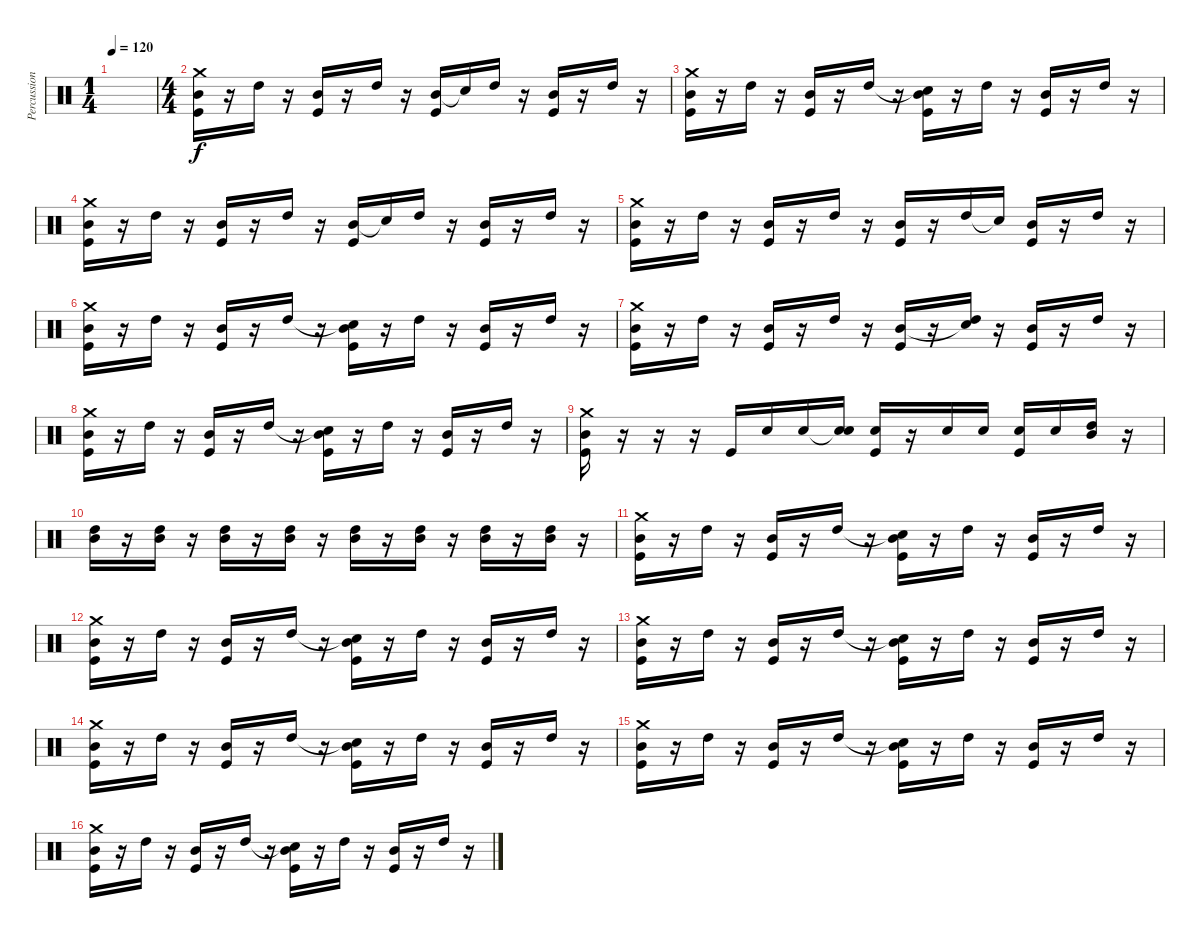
\track ("Percussion" "Percussion") {instrument percussion}
\staff {score}
\articulation defaults
\ts (1 4)
\tempo 120
\clef neutral
\ks c
|
\ts (4 4)
("Crash medium (hit)" "Mid Tom (hit)" "Kick (hit)").16 r.16 "High Tom (hit)".16 r.16 ("Mid Tom (hit)" "Kick (hit)").16 r.16 "High Tom (hit)".16 r.16 ("Mid Tom (hit)" "Kick (hit)").16 "Snare (hit)"{t}.16 "High Tom (hit)".16 r.16 ("Mid Tom (hit)" "Kick (hit)").16 r.16 "High Tom (hit)".16 r.16 |
("Crash medium (hit)" "Mid Tom (hit)" "Kick (hit)").16 r.16 "High Tom (hit)".16 r.16 ("Mid Tom (hit)" "Kick (hit)").16 r.16 "High Tom (hit)".16 r.16 ("Snare (hit)"{t} "Mid Tom (hit)" "Kick (hit)").16 r.16 "High Tom (hit)".16 r.16 ("Mid Tom (hit)" "Kick (hit)").16 r.16 "High Tom (hit)".16 r.16 |
("Crash medium (hit)" "Mid Tom (hit)" "Kick (hit)").16 r.16 "High Tom (hit)".16 r.16 ("Mid Tom (hit)" "Kick (hit)").16 r.16 "High Tom (hit)".16 r.16 ("Mid Tom (hit)" "Kick (hit)").16 "Snare (hit)"{t}.16 "High Tom (hit)".16 r.16 ("Mid Tom (hit)" "Kick (hit)").16 r.16 "High Tom (hit)".16 r.16 |
("Crash medium (hit)" "Mid Tom (hit)" "Kick (hit)").16 r.16 "High Tom (hit)".16 r.16 ("Mid Tom (hit)" "Kick (hit)").16 r.16 "High Tom (hit)".16 r.16 ("Mid Tom (hit)" "Kick (hit)").16 r.16 "High Tom (hit)".16 "Snare (hit)"{t}.16 ("Mid Tom (hit)" "Kick (hit)").16 r.16 "High Tom (hit)".16 r.16 |
("Crash medium (hit)" "Mid Tom (hit)" "Kick (hit)").16 r.16 "High Tom (hit)".16 r.16 ("Mid Tom (hit)" "Kick (hit)").16 r.16 "High Tom (hit)".16 r.16 ("Snare (hit)"{t} "Mid Tom (hit)" "Kick (hit)").16 r.16 "High Tom (hit)".16 r.16 ("Mid Tom (hit)" "Kick (hit)").16 r.16 "High Tom (hit)".16 r.16 |
("Crash medium (hit)" "Mid Tom (hit)" "Kick (hit)").16 r.16 "High Tom (hit)".16 r.16 ("Mid Tom (hit)" "Kick (hit)").16 r.16 "High Tom (hit)".16 r.16 ("Mid Tom (hit)" "Kick (hit)").16 r.16 ("Snare (hit)"{t} "High Tom (hit)").16 r.16 ("Mid Tom (hit)" "Kick (hit)").16 r.16 "High Tom (hit)".16 r.16 |
("Crash medium (hit)" "Mid Tom (hit)" "Kick (hit)").16 r.16 "High Tom (hit)".16 r.16 ("Mid Tom (hit)" "Kick (hit)").16 r.16 "High Tom (hit)".16 r.16 ("Snare (hit)"{t} "Mid Tom (hit)" "Kick (hit)").16 r.16 "High Tom (hit)".16 r.16 ("Mid Tom (hit)" "Kick (hit)").16 r.16 "High Tom (hit)".16 r.16 |
("Crash medium (hit)" "Mid Tom (hit)" "Kick (hit)").16 r.16 r.16 r.16 "Kick (hit)".16 "Electric Snare (hit)".16 "Electric Snare (hit)".16 ("Snare (hit)"{t} "Electric Snare (hit)").16 ("Electric Snare (hit)" "Kick (hit)").16 r.16 "Electric Snare (hit)".16 "Electric Snare (hit)".16 ("Electric Snare (hit)" "Kick (hit)").16 "Electric Snare (hit)".16 ("Mid Tom (hit)" "High Tom (hit)").16 r.16 |
("Mid Tom (hit)" "High Tom (hit)").16 r.16 ("High Tom (hit)" "Mid Tom (hit)").16 r.16 ("Mid Tom (hit)" "High Tom (hit)").16 r.16 ("Mid Tom (hit)" "High Tom (hit)").16 r.16 ("High Tom (hit)" "Mid Tom (hit)").16 r.16 ("Mid Tom (hit)" "High Tom (hit)").16 r.16 ("High Tom (hit)" "Mid Tom (hit)").16 r.16 ("Mid Tom (hit)" "High Tom (hit)").16 r.16 |
("Crash medium (hit)" "Mid Tom (hit)" "Kick (hit)").16 r.16 "High Tom (hit)".16 r.16 ("Mid Tom (hit)" "Kick (hit)").16 r.16 "High Tom (hit)".16 r.16 ("Snare (hit)"{t} "Mid Tom (hit)" "Kick (hit)").16 r.16 "High Tom (hit)".16 r.16 ("Mid Tom (hit)" "Kick (hit)").16 r.16 "High Tom (hit)".16 r.16 |
("Crash medium (hit)" "Mid Tom (hit)" "Kick (hit)").16 r.16 "High Tom (hit)".16 r.16 ("Mid Tom (hit)" "Kick (hit)").16 r.16 "High Tom (hit)".16 r.16 ("Snare (hit)"{t} "Mid Tom (hit)" "Kick (hit)").16 r.16 "High Tom (hit)".16 r.16 ("Mid Tom (hit)" "Kick (hit)").16 r.16 "High Tom (hit)".16 r.16 |
("Crash medium (hit)" "Mid Tom (hit)" "Kick (hit)").16 r.16 "High Tom (hit)".16 r.16 ("Mid Tom (hit)" "Kick (hit)").16 r.16 "High Tom (hit)".16 r.16 ("Snare (hit)"{t} "Mid Tom (hit)" "Kick (hit)").16 r.16 "High Tom (hit)".16 r.16 ("Mid Tom (hit)" "Kick (hit)").16 r.16 "High Tom (hit)".16 r.16 |
("Crash medium (hit)" "Mid Tom (hit)" "Kick (hit)").16 r.16 "High Tom (hit)".16 r.16 ("Mid Tom (hit)" "Kick (hit)").16 r.16 "High Tom (hit)".16 r.16 ("Snare (hit)"{t} "Mid Tom (hit)" "Kick (hit)").16 r.16 "High Tom (hit)".16 r.16 ("Mid Tom (hit)" "Kick (hit)").16 r.16 "High Tom (hit)".16 r.16 |
("Crash medium (hit)" "Mid Tom (hit)" "Kick (hit)").16 r.16 "High Tom (hit)".16 r.16 ("Mid Tom (hit)" "Kick (hit)").16 r.16 "High Tom (hit)".16 r.16 ("Snare (hit)"{t} "Mid Tom (hit)" "Kick (hit)").16 r.16 "High Tom (hit)".16 r.16 ("Mid Tom (hit)" "Kick (hit)").16 r.16 "High Tom (hit)".16 r.16 |
("Crash medium (hit)" "Mid Tom (hit)" "Kick (hit)").16 r.16 "High Tom (hit)".16 r.16 ("Mid Tom (hit)" "Kick (hit)").16 r.16 "High Tom (hit)".16 r.16 ("Snare (hit)"{t} "Mid Tom (hit)" "Kick (hit)").16 r.16 "High Tom (hit)".16 r.16 ("Mid Tom (hit)" "Kick (hit)").16 r.16 "High Tom (hit)".16 r.16
